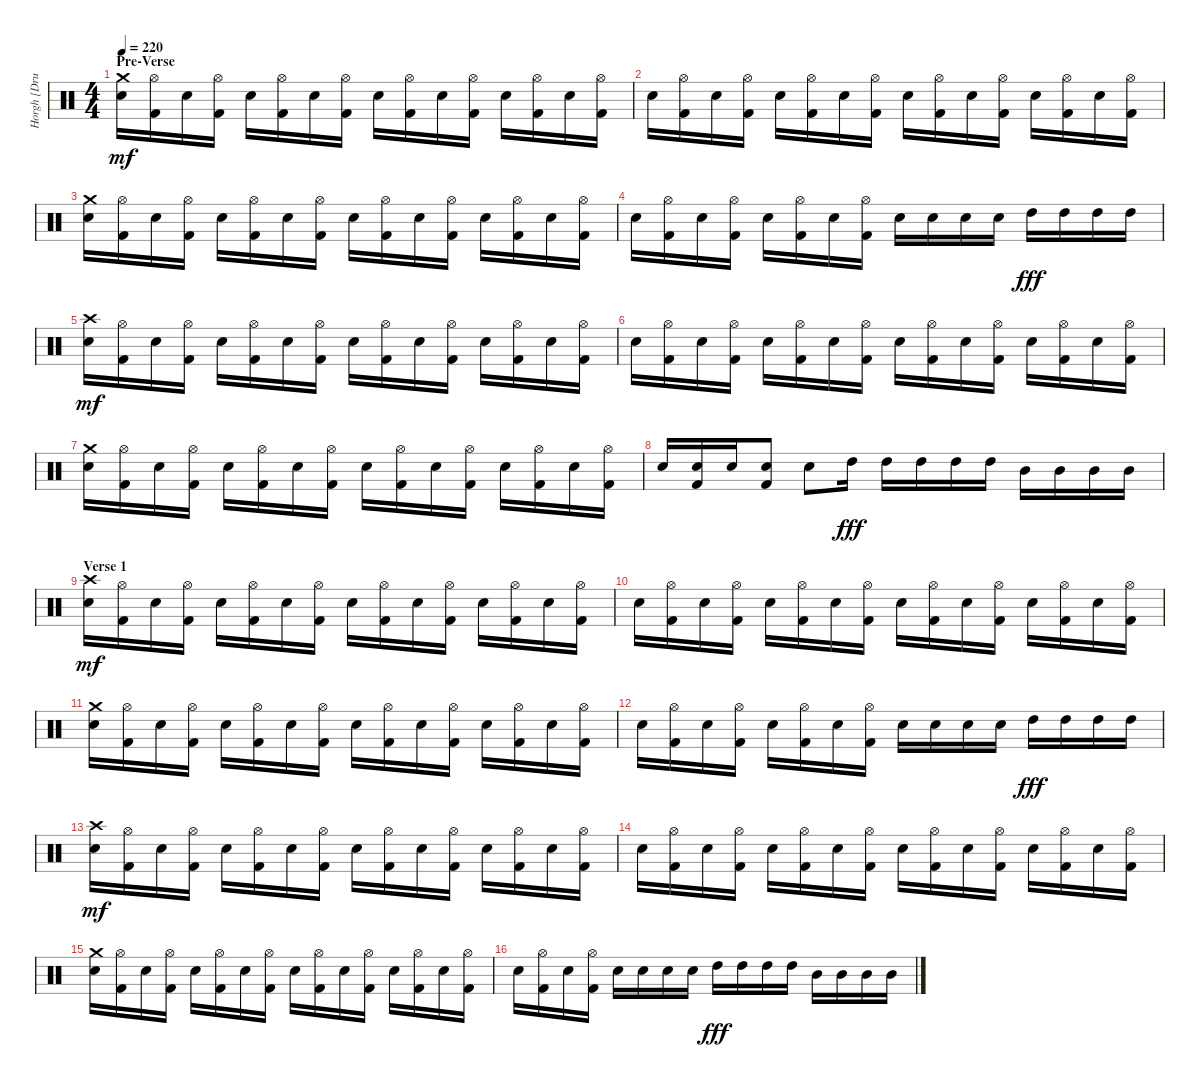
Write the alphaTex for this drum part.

\track ("Horgh [Drums]" "Horgh [Dru") {instrument percussion}
\staff {score}
\articulation defaults
\ts (4 4)
\section ("" "Pre-Verse")
\tempo 220
\clef neutral
\ks c
("Crash medium (hit)" "Electric Snare (hit)").16{dy mf} ("Hi-Hat (open)" "Kick (hit) 2").16 "Electric Snare (hit)".16 ("Hi-Hat (open)" "Kick (hit) 2").16 "Electric Snare (hit)".16 ("Hi-Hat (open)" "Kick (hit) 2").16 "Electric Snare (hit)".16 ("Hi-Hat (open)" "Kick (hit) 2").16 "Electric Snare (hit)".16 ("Hi-Hat (open)" "Kick (hit) 2").16 "Electric Snare (hit)".16 ("Hi-Hat (open)" "Kick (hit) 2").16 "Electric Snare (hit)".16 ("Hi-Hat (open)" "Kick (hit) 2").16 "Electric Snare (hit)".16 ("Hi-Hat (open)" "Kick (hit) 2").16 |
"Electric Snare (hit)".16 ("Hi-Hat (open)" "Kick (hit) 2").16 "Electric Snare (hit)".16 ("Hi-Hat (open)" "Kick (hit) 2").16 "Electric Snare (hit)".16 ("Hi-Hat (open)" "Kick (hit) 2").16 "Electric Snare (hit)".16 ("Hi-Hat (open)" "Kick (hit) 2").16 "Electric Snare (hit)".16 ("Hi-Hat (open)" "Kick (hit) 2").16 "Electric Snare (hit)".16 ("Hi-Hat (open)" "Kick (hit) 2").16 "Electric Snare (hit)".16 ("Hi-Hat (open)" "Kick (hit) 2").16 "Electric Snare (hit)".16 ("Hi-Hat (open)" "Kick (hit) 2").16 |
("Crash medium (hit)" "Electric Snare (hit)").16 ("Hi-Hat (open)" "Kick (hit) 2").16 "Electric Snare (hit)".16 ("Hi-Hat (open)" "Kick (hit) 2").16 "Electric Snare (hit)".16 ("Hi-Hat (open)" "Kick (hit) 2").16 "Electric Snare (hit)".16 ("Hi-Hat (open)" "Kick (hit) 2").16 "Electric Snare (hit)".16 ("Hi-Hat (open)" "Kick (hit) 2").16 "Electric Snare (hit)".16 ("Hi-Hat (open)" "Kick (hit) 2").16 "Electric Snare (hit)".16 ("Hi-Hat (open)" "Kick (hit) 2").16 "Electric Snare (hit)".16 ("Hi-Hat (open)" "Kick (hit) 2").16 |
"Electric Snare (hit)".16 ("Hi-Hat (open)" "Kick (hit) 2").16 "Electric Snare (hit)".16 ("Hi-Hat (open)" "Kick (hit) 2").16 "Electric Snare (hit)".16 ("Hi-Hat (open)" "Kick (hit) 2").16 "Electric Snare (hit)".16 ("Hi-Hat (open)" "Kick (hit) 2").16 "Electric Snare (hit)".16 "Electric Snare (hit)".16 "Electric Snare (hit)".16 "Electric Snare (hit)".16 "High Tom (hit)".16{dy fff} "High Tom (hit)".16 "High Tom (hit)".16 "High Tom (hit)".16 |
("Crash high (hit)" "Electric Snare (hit)").16{dy mf} ("Hi-Hat (open)" "Kick (hit) 2").16 "Electric Snare (hit)".16 ("Hi-Hat (open)" "Kick (hit) 2").16 "Electric Snare (hit)".16 ("Hi-Hat (open)" "Kick (hit) 2").16 "Electric Snare (hit)".16 ("Hi-Hat (open)" "Kick (hit) 2").16 "Electric Snare (hit)".16 ("Hi-Hat (open)" "Kick (hit) 2").16 "Electric Snare (hit)".16 ("Hi-Hat (open)" "Kick (hit) 2").16 "Electric Snare (hit)".16 ("Hi-Hat (open)" "Kick (hit) 2").16 "Electric Snare (hit)".16 ("Hi-Hat (open)" "Kick (hit) 2").16 |
"Electric Snare (hit)".16 ("Hi-Hat (open)" "Kick (hit) 2").16 "Electric Snare (hit)".16 ("Hi-Hat (open)" "Kick (hit) 2").16 "Electric Snare (hit)".16 ("Hi-Hat (open)" "Kick (hit) 2").16 "Electric Snare (hit)".16 ("Hi-Hat (open)" "Kick (hit) 2").16 "Electric Snare (hit)".16 ("Hi-Hat (open)" "Kick (hit) 2").16 "Electric Snare (hit)".16 ("Hi-Hat (open)" "Kick (hit) 2").16 "Electric Snare (hit)".16 ("Hi-Hat (open)" "Kick (hit) 2").16 "Electric Snare (hit)".16 ("Hi-Hat (open)" "Kick (hit) 2").16 |
("Crash medium (hit)" "Electric Snare (hit)").16 ("Hi-Hat (open)" "Kick (hit) 2").16 "Electric Snare (hit)".16 ("Hi-Hat (open)" "Kick (hit) 2").16 "Electric Snare (hit)".16 ("Hi-Hat (open)" "Kick (hit) 2").16 "Electric Snare (hit)".16 ("Hi-Hat (open)" "Kick (hit) 2").16 "Electric Snare (hit)".16 ("Hi-Hat (open)" "Kick (hit) 2").16 "Electric Snare (hit)".16 ("Hi-Hat (open)" "Kick (hit) 2").16 "Electric Snare (hit)".16 ("Hi-Hat (open)" "Kick (hit) 2").16 "Electric Snare (hit)".16 ("Hi-Hat (open)" "Kick (hit) 2").16 |
"Electric Snare (hit)".16 ("Electric Snare (hit)" "Kick (hit) 2").16 "Electric Snare (hit)".16 ("Electric Snare (hit)" "Kick (hit) 2").8 "Electric Snare (hit)".8 "High Tom (hit)".16{dy fff} "High Tom (hit)".16 "High Tom (hit)".16 "High Tom (hit)".16 "High Tom (hit)".16 "Mid Tom (hit)".16 "Mid Tom (hit)".16 "Mid Tom (hit)".16 "Mid Tom (hit)".16 |
\section ("" "Verse 1")
("Crash high (hit)" "Electric Snare (hit)").16{dy mf} ("Hi-Hat (open)" "Kick (hit) 2").16 "Electric Snare (hit)".16 ("Hi-Hat (open)" "Kick (hit) 2").16 "Electric Snare (hit)".16 ("Hi-Hat (open)" "Kick (hit) 2").16 "Electric Snare (hit)".16 ("Hi-Hat (open)" "Kick (hit) 2").16 "Electric Snare (hit)".16 ("Hi-Hat (open)" "Kick (hit) 2").16 "Electric Snare (hit)".16 ("Hi-Hat (open)" "Kick (hit) 2").16 "Electric Snare (hit)".16 ("Hi-Hat (open)" "Kick (hit) 2").16 "Electric Snare (hit)".16 ("Hi-Hat (open)" "Kick (hit) 2").16 |
"Electric Snare (hit)".16 ("Hi-Hat (open)" "Kick (hit) 2").16 "Electric Snare (hit)".16 ("Hi-Hat (open)" "Kick (hit) 2").16 "Electric Snare (hit)".16 ("Hi-Hat (open)" "Kick (hit) 2").16 "Electric Snare (hit)".16 ("Hi-Hat (open)" "Kick (hit) 2").16 "Electric Snare (hit)".16 ("Hi-Hat (open)" "Kick (hit) 2").16 "Electric Snare (hit)".16 ("Hi-Hat (open)" "Kick (hit) 2").16 "Electric Snare (hit)".16 ("Hi-Hat (open)" "Kick (hit) 2").16 "Electric Snare (hit)".16 ("Hi-Hat (open)" "Kick (hit) 2").16 |
("Crash medium (hit)" "Electric Snare (hit)").16 ("Hi-Hat (open)" "Kick (hit) 2").16 "Electric Snare (hit)".16 ("Hi-Hat (open)" "Kick (hit) 2").16 "Electric Snare (hit)".16 ("Hi-Hat (open)" "Kick (hit) 2").16 "Electric Snare (hit)".16 ("Hi-Hat (open)" "Kick (hit) 2").16 "Electric Snare (hit)".16 ("Hi-Hat (open)" "Kick (hit) 2").16 "Electric Snare (hit)".16 ("Hi-Hat (open)" "Kick (hit) 2").16 "Electric Snare (hit)".16 ("Hi-Hat (open)" "Kick (hit) 2").16 "Electric Snare (hit)".16 ("Hi-Hat (open)" "Kick (hit) 2").16 |
"Electric Snare (hit)".16 ("Hi-Hat (open)" "Kick (hit) 2").16 "Electric Snare (hit)".16 ("Hi-Hat (open)" "Kick (hit) 2").16 "Electric Snare (hit)".16 ("Hi-Hat (open)" "Kick (hit) 2").16 "Electric Snare (hit)".16 ("Hi-Hat (open)" "Kick (hit) 2").16 "Electric Snare (hit)".16 "Electric Snare (hit)".16 "Electric Snare (hit)".16 "Electric Snare (hit)".16 "High Tom (hit)".16{dy fff} "High Tom (hit)".16 "High Tom (hit)".16 "High Tom (hit)".16 |
("Crash high (hit)" "Electric Snare (hit)").16{dy mf} ("Hi-Hat (open)" "Kick (hit) 2").16 "Electric Snare (hit)".16 ("Hi-Hat (open)" "Kick (hit) 2").16 "Electric Snare (hit)".16 ("Hi-Hat (open)" "Kick (hit) 2").16 "Electric Snare (hit)".16 ("Hi-Hat (open)" "Kick (hit) 2").16 "Electric Snare (hit)".16 ("Hi-Hat (open)" "Kick (hit) 2").16 "Electric Snare (hit)".16 ("Hi-Hat (open)" "Kick (hit) 2").16 "Electric Snare (hit)".16 ("Hi-Hat (open)" "Kick (hit) 2").16 "Electric Snare (hit)".16 ("Hi-Hat (open)" "Kick (hit) 2").16 |
"Electric Snare (hit)".16 ("Hi-Hat (open)" "Kick (hit) 2").16 "Electric Snare (hit)".16 ("Hi-Hat (open)" "Kick (hit) 2").16 "Electric Snare (hit)".16 ("Hi-Hat (open)" "Kick (hit) 2").16 "Electric Snare (hit)".16 ("Hi-Hat (open)" "Kick (hit) 2").16 "Electric Snare (hit)".16 ("Hi-Hat (open)" "Kick (hit) 2").16 "Electric Snare (hit)".16 ("Hi-Hat (open)" "Kick (hit) 2").16 "Electric Snare (hit)".16 ("Hi-Hat (open)" "Kick (hit) 2").16 "Electric Snare (hit)".16 ("Hi-Hat (open)" "Kick (hit) 2").16 |
("Crash medium (hit)" "Electric Snare (hit)").16 ("Hi-Hat (open)" "Kick (hit) 2").16 "Electric Snare (hit)".16 ("Hi-Hat (open)" "Kick (hit) 2").16 "Electric Snare (hit)".16 ("Hi-Hat (open)" "Kick (hit) 2").16 "Electric Snare (hit)".16 ("Hi-Hat (open)" "Kick (hit) 2").16 "Electric Snare (hit)".16 ("Hi-Hat (open)" "Kick (hit) 2").16 "Electric Snare (hit)".16 ("Hi-Hat (open)" "Kick (hit) 2").16 "Electric Snare (hit)".16 ("Hi-Hat (open)" "Kick (hit) 2").16 "Electric Snare (hit)".16 ("Hi-Hat (open)" "Kick (hit) 2").16 |
"Electric Snare (hit)".16 ("Hi-Hat (open)" "Kick (hit) 2").16 "Electric Snare (hit)".16 ("Hi-Hat (open)" "Kick (hit) 2").16 "Electric Snare (hit)".16 "Electric Snare (hit)".16 "Electric Snare (hit)".16 "Electric Snare (hit)".16 "High Tom (hit)".16{dy fff} "High Tom (hit)".16 "High Tom (hit)".16 "High Tom (hit)".16 "Mid Tom (hit)".16 "Mid Tom (hit)".16 "Mid Tom (hit)".16 "Mid Tom (hit)".16
